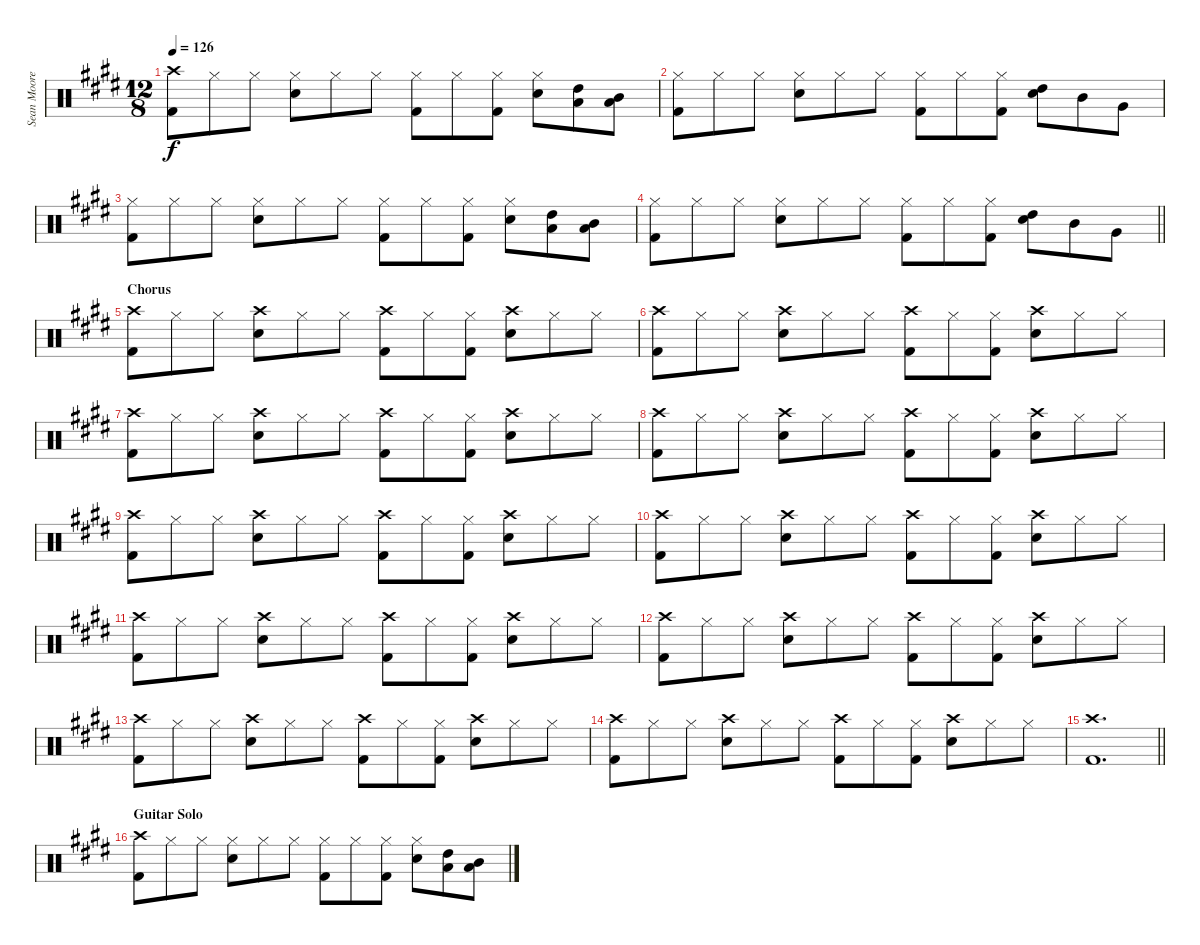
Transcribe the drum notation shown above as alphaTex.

\track ("Sean Moore (Drums)" "Sean Moore") {instrument percussion}
\staff {score}
\articulation defaults
\ts (12 8)
\tempo 126
\clef neutral
\ks e
("Crash high (hit)" "Kick (hit) 2").8{dy f} "Hi-Hat (closed)".8 "Hi-Hat (closed)".8 ("Hi-Hat (closed)" "Electric Snare (hit)").8 "Hi-Hat (closed)".8 "Hi-Hat (closed)".8 ("Hi-Hat (closed)" "Kick (hit) 2").8 "Hi-Hat (closed)".8 ("Hi-Hat (closed)" "Kick (hit) 2").8 ("Hi-Hat (closed)" "Electric Snare (hit)").8 ("High Tom (hit)" "Low Floor Tom (hit)").8 ("Mid Tom (hit)" "Low Floor Tom (hit)").8 |
("Hi-Hat (closed)" "Kick (hit) 2").8 "Hi-Hat (closed)".8 "Hi-Hat (closed)".8 ("Hi-Hat (closed)" "Electric Snare (hit)").8 "Hi-Hat (closed)".8 "Hi-Hat (closed)".8 ("Hi-Hat (closed)" "Kick (hit) 2").8 "Hi-Hat (closed)".8 ("Hi-Hat (closed)" "Kick (hit) 2").8 ("Electric Snare (hit)" "High Tom (hit)").8 "Mid Tom (hit)".8 "Very Low Tom (hit)".8 |
("Hi-Hat (closed)" "Kick (hit) 2").8 "Hi-Hat (closed)".8 "Hi-Hat (closed)".8 ("Hi-Hat (closed)" "Electric Snare (hit)").8 "Hi-Hat (closed)".8 "Hi-Hat (closed)".8 ("Hi-Hat (closed)" "Kick (hit) 2").8 "Hi-Hat (closed)".8 ("Hi-Hat (closed)" "Kick (hit) 2").8 ("Hi-Hat (closed)" "Electric Snare (hit)").8 ("High Tom (hit)" "Low Floor Tom (hit)").8 ("Mid Tom (hit)" "Low Floor Tom (hit)").8 |
\barLineRight lightlight
("Hi-Hat (closed)" "Kick (hit) 2").8 "Hi-Hat (closed)".8 "Hi-Hat (closed)".8 ("Hi-Hat (closed)" "Electric Snare (hit)").8 "Hi-Hat (closed)".8 "Hi-Hat (closed)".8 ("Hi-Hat (closed)" "Kick (hit) 2").8 "Hi-Hat (closed)".8 ("Hi-Hat (closed)" "Kick (hit) 2").8 ("Electric Snare (hit)" "High Tom (hit)").8 "Mid Tom (hit)".8 "Very Low Tom (hit)".8 |
\section ("" "Chorus")
("Crash high (hit)" "Kick (hit) 2").8 "Hi-Hat (closed)".8 "Hi-Hat (closed)".8 ("Crash high (hit)" "Electric Snare (hit)").8 "Hi-Hat (closed)".8 "Hi-Hat (closed)".8 ("Crash high (hit)" "Kick (hit) 2").8 "Hi-Hat (closed)".8 ("Hi-Hat (closed)" "Kick (hit) 2").8 ("Crash high (hit)" "Electric Snare (hit)").8 "Hi-Hat (closed)".8 "Hi-Hat (closed)".8 |
("Crash high (hit)" "Kick (hit) 2").8 "Hi-Hat (closed)".8 "Hi-Hat (closed)".8 ("Crash high (hit)" "Electric Snare (hit)").8 "Hi-Hat (closed)".8 "Hi-Hat (closed)".8 ("Crash high (hit)" "Kick (hit) 2").8 "Hi-Hat (closed)".8 ("Hi-Hat (closed)" "Kick (hit) 2").8 ("Crash high (hit)" "Electric Snare (hit)").8 "Hi-Hat (closed)".8 "Hi-Hat (closed)".8 |
("Crash high (hit)" "Kick (hit) 2").8 "Hi-Hat (closed)".8 "Hi-Hat (closed)".8 ("Crash high (hit)" "Electric Snare (hit)").8 "Hi-Hat (closed)".8 "Hi-Hat (closed)".8 ("Crash high (hit)" "Kick (hit) 2").8 "Hi-Hat (closed)".8 ("Hi-Hat (closed)" "Kick (hit) 2").8 ("Crash high (hit)" "Electric Snare (hit)").8 "Hi-Hat (closed)".8 "Hi-Hat (closed)".8 |
("Crash high (hit)" "Kick (hit) 2").8 "Hi-Hat (closed)".8 "Hi-Hat (closed)".8 ("Crash high (hit)" "Electric Snare (hit)").8 "Hi-Hat (closed)".8 "Hi-Hat (closed)".8 ("Crash high (hit)" "Kick (hit) 2").8 "Hi-Hat (closed)".8 ("Hi-Hat (closed)" "Kick (hit) 2").8 ("Crash high (hit)" "Electric Snare (hit)").8 "Hi-Hat (closed)".8 "Hi-Hat (closed)".8 |
("Crash high (hit)" "Kick (hit) 2").8 "Hi-Hat (closed)".8 "Hi-Hat (closed)".8 ("Crash high (hit)" "Electric Snare (hit)").8 "Hi-Hat (closed)".8 "Hi-Hat (closed)".8 ("Crash high (hit)" "Kick (hit) 2").8 "Hi-Hat (closed)".8 ("Hi-Hat (closed)" "Kick (hit) 2").8 ("Crash high (hit)" "Electric Snare (hit)").8 "Hi-Hat (closed)".8 "Hi-Hat (closed)".8 |
("Crash high (hit)" "Kick (hit) 2").8 "Hi-Hat (closed)".8 "Hi-Hat (closed)".8 ("Crash high (hit)" "Electric Snare (hit)").8 "Hi-Hat (closed)".8 "Hi-Hat (closed)".8 ("Crash high (hit)" "Kick (hit) 2").8 "Hi-Hat (closed)".8 ("Hi-Hat (closed)" "Kick (hit) 2").8 ("Crash high (hit)" "Electric Snare (hit)").8 "Hi-Hat (closed)".8 "Hi-Hat (closed)".8 |
("Crash high (hit)" "Kick (hit) 2").8 "Hi-Hat (closed)".8 "Hi-Hat (closed)".8 ("Crash high (hit)" "Electric Snare (hit)").8 "Hi-Hat (closed)".8 "Hi-Hat (closed)".8 ("Crash high (hit)" "Kick (hit) 2").8 "Hi-Hat (closed)".8 ("Hi-Hat (closed)" "Kick (hit) 2").8 ("Crash high (hit)" "Electric Snare (hit)").8 "Hi-Hat (closed)".8 "Hi-Hat (closed)".8 |
("Crash high (hit)" "Kick (hit) 2").8 "Hi-Hat (closed)".8 "Hi-Hat (closed)".8 ("Crash high (hit)" "Electric Snare (hit)").8 "Hi-Hat (closed)".8 "Hi-Hat (closed)".8 ("Crash high (hit)" "Kick (hit) 2").8 "Hi-Hat (closed)".8 ("Hi-Hat (closed)" "Kick (hit) 2").8 ("Crash high (hit)" "Electric Snare (hit)").8 "Hi-Hat (closed)".8 "Hi-Hat (closed)".8 |
("Crash high (hit)" "Kick (hit) 2").8 "Hi-Hat (closed)".8 "Hi-Hat (closed)".8 ("Crash high (hit)" "Electric Snare (hit)").8 "Hi-Hat (closed)".8 "Hi-Hat (closed)".8 ("Crash high (hit)" "Kick (hit) 2").8 "Hi-Hat (closed)".8 ("Hi-Hat (closed)" "Kick (hit) 2").8 ("Crash high (hit)" "Electric Snare (hit)").8 "Hi-Hat (closed)".8 "Hi-Hat (closed)".8 |
("Crash high (hit)" "Kick (hit) 2").8 "Hi-Hat (closed)".8 "Hi-Hat (closed)".8 ("Crash high (hit)" "Electric Snare (hit)").8 "Hi-Hat (closed)".8 "Hi-Hat (closed)".8 ("Crash high (hit)" "Kick (hit) 2").8 "Hi-Hat (closed)".8 ("Hi-Hat (closed)" "Kick (hit) 2").8 ("Crash high (hit)" "Electric Snare (hit)").8 "Hi-Hat (closed)".8 "Hi-Hat (closed)".8 |
\barLineRight lightlight
("Crash high (hit)" "Kick (hit) 2").1{d} |
\section ("" "Guitar Solo")
("Crash high (hit)" "Kick (hit) 2").8 "Hi-Hat (closed)".8 "Hi-Hat (closed)".8 ("Hi-Hat (closed)" "Electric Snare (hit)").8 "Hi-Hat (closed)".8 "Hi-Hat (closed)".8 ("Hi-Hat (closed)" "Kick (hit) 2").8 "Hi-Hat (closed)".8 ("Hi-Hat (closed)" "Kick (hit) 2").8 ("Hi-Hat (closed)" "Electric Snare (hit)").8 ("High Tom (hit)" "Low Floor Tom (hit)").8 ("Mid Tom (hit)" "Low Floor Tom (hit)").8
